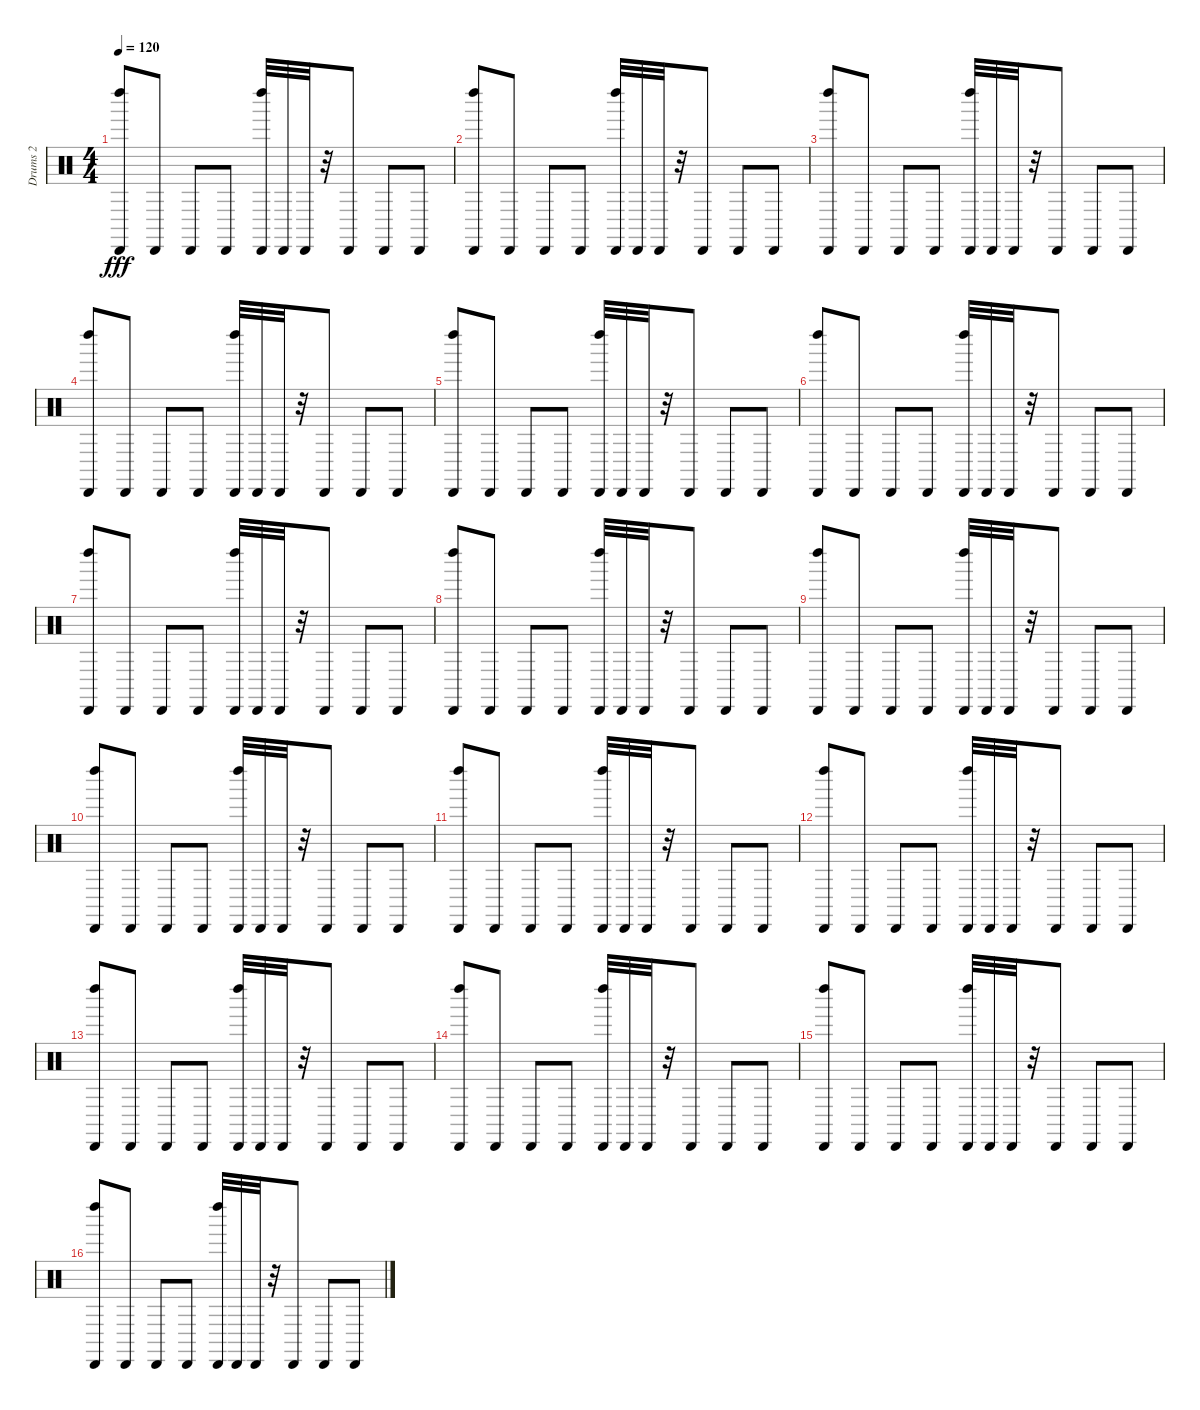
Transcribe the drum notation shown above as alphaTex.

\track ("Drums 2" "Drums 2") {instrument percussion}
\staff {score}
\articulation defaults
\ts (4 4)
\tempo 120
\clef neutral
\ks c
("Cabasa (hit)" "Left Maraca (hit)").8{dy fff} "Cabasa (hit)".8 "Cabasa (hit)".8 "Cabasa (hit)".8 ("Cabasa (hit)" "Left Maraca (hit)").32 "Cabasa (hit)".32 "Cabasa (hit)".32 r.32 "Cabasa (hit)".8 "Cabasa (hit)".8 "Cabasa (hit)".8 |
("Cabasa (hit)" "Left Maraca (hit)").8 "Cabasa (hit)".8 "Cabasa (hit)".8 "Cabasa (hit)".8 ("Cabasa (hit)" "Left Maraca (hit)").32 "Cabasa (hit)".32 "Cabasa (hit)".32 r.32 "Cabasa (hit)".8 "Cabasa (hit)".8 "Cabasa (hit)".8 |
("Cabasa (hit)" "Left Maraca (hit)").8 "Cabasa (hit)".8 "Cabasa (hit)".8 "Cabasa (hit)".8 ("Cabasa (hit)" "Left Maraca (hit)").32 "Cabasa (hit)".32 "Cabasa (hit)".32 r.32 "Cabasa (hit)".8 "Cabasa (hit)".8 "Cabasa (hit)".8 |
("Cabasa (hit)" "Left Maraca (hit)").8 "Cabasa (hit)".8 "Cabasa (hit)".8 "Cabasa (hit)".8 ("Cabasa (hit)" "Left Maraca (hit)").32 "Cabasa (hit)".32 "Cabasa (hit)".32 r.32 "Cabasa (hit)".8 "Cabasa (hit)".8 "Cabasa (hit)".8 |
("Cabasa (hit)" "Left Maraca (hit)").8 "Cabasa (hit)".8 "Cabasa (hit)".8 "Cabasa (hit)".8 ("Cabasa (hit)" "Left Maraca (hit)").32 "Cabasa (hit)".32 "Cabasa (hit)".32 r.32 "Cabasa (hit)".8 "Cabasa (hit)".8 "Cabasa (hit)".8 |
("Cabasa (hit)" "Left Maraca (hit)").8 "Cabasa (hit)".8 "Cabasa (hit)".8 "Cabasa (hit)".8 ("Cabasa (hit)" "Left Maraca (hit)").32 "Cabasa (hit)".32 "Cabasa (hit)".32 r.32 "Cabasa (hit)".8 "Cabasa (hit)".8 "Cabasa (hit)".8 |
("Cabasa (hit)" "Left Maraca (hit)").8 "Cabasa (hit)".8 "Cabasa (hit)".8 "Cabasa (hit)".8 ("Cabasa (hit)" "Left Maraca (hit)").32 "Cabasa (hit)".32 "Cabasa (hit)".32 r.32 "Cabasa (hit)".8 "Cabasa (hit)".8 "Cabasa (hit)".8 |
("Cabasa (hit)" "Left Maraca (hit)").8 "Cabasa (hit)".8 "Cabasa (hit)".8 "Cabasa (hit)".8 ("Cabasa (hit)" "Left Maraca (hit)").32 "Cabasa (hit)".32 "Cabasa (hit)".32 r.32 "Cabasa (hit)".8 "Cabasa (hit)".8 "Cabasa (hit)".8 |
("Cabasa (hit)" "Left Maraca (hit)").8 "Cabasa (hit)".8 "Cabasa (hit)".8 "Cabasa (hit)".8 ("Cabasa (hit)" "Left Maraca (hit)").32 "Cabasa (hit)".32 "Cabasa (hit)".32 r.32 "Cabasa (hit)".8 "Cabasa (hit)".8 "Cabasa (hit)".8 |
("Cabasa (hit)" "Left Maraca (hit)").8 "Cabasa (hit)".8 "Cabasa (hit)".8 "Cabasa (hit)".8 ("Cabasa (hit)" "Left Maraca (hit)").32 "Cabasa (hit)".32 "Cabasa (hit)".32 r.32 "Cabasa (hit)".8 "Cabasa (hit)".8 "Cabasa (hit)".8 |
("Cabasa (hit)" "Left Maraca (hit)").8 "Cabasa (hit)".8 "Cabasa (hit)".8 "Cabasa (hit)".8 ("Cabasa (hit)" "Left Maraca (hit)").32 "Cabasa (hit)".32 "Cabasa (hit)".32 r.32 "Cabasa (hit)".8 "Cabasa (hit)".8 "Cabasa (hit)".8 |
("Cabasa (hit)" "Left Maraca (hit)").8 "Cabasa (hit)".8 "Cabasa (hit)".8 "Cabasa (hit)".8 ("Cabasa (hit)" "Left Maraca (hit)").32 "Cabasa (hit)".32 "Cabasa (hit)".32 r.32 "Cabasa (hit)".8 "Cabasa (hit)".8 "Cabasa (hit)".8 |
("Cabasa (hit)" "Left Maraca (hit)").8 "Cabasa (hit)".8 "Cabasa (hit)".8 "Cabasa (hit)".8 ("Cabasa (hit)" "Left Maraca (hit)").32 "Cabasa (hit)".32 "Cabasa (hit)".32 r.32 "Cabasa (hit)".8 "Cabasa (hit)".8 "Cabasa (hit)".8 |
("Cabasa (hit)" "Left Maraca (hit)").8 "Cabasa (hit)".8 "Cabasa (hit)".8 "Cabasa (hit)".8 ("Cabasa (hit)" "Left Maraca (hit)").32 "Cabasa (hit)".32 "Cabasa (hit)".32 r.32 "Cabasa (hit)".8 "Cabasa (hit)".8 "Cabasa (hit)".8 |
("Cabasa (hit)" "Left Maraca (hit)").8 "Cabasa (hit)".8 "Cabasa (hit)".8 "Cabasa (hit)".8 ("Cabasa (hit)" "Left Maraca (hit)").32 "Cabasa (hit)".32 "Cabasa (hit)".32 r.32 "Cabasa (hit)".8 "Cabasa (hit)".8 "Cabasa (hit)".8 |
("Cabasa (hit)" "Left Maraca (hit)").8 "Cabasa (hit)".8 "Cabasa (hit)".8 "Cabasa (hit)".8 ("Cabasa (hit)" "Left Maraca (hit)").32 "Cabasa (hit)".32 "Cabasa (hit)".32 r.32 "Cabasa (hit)".8 "Cabasa (hit)".8 "Cabasa (hit)".8
